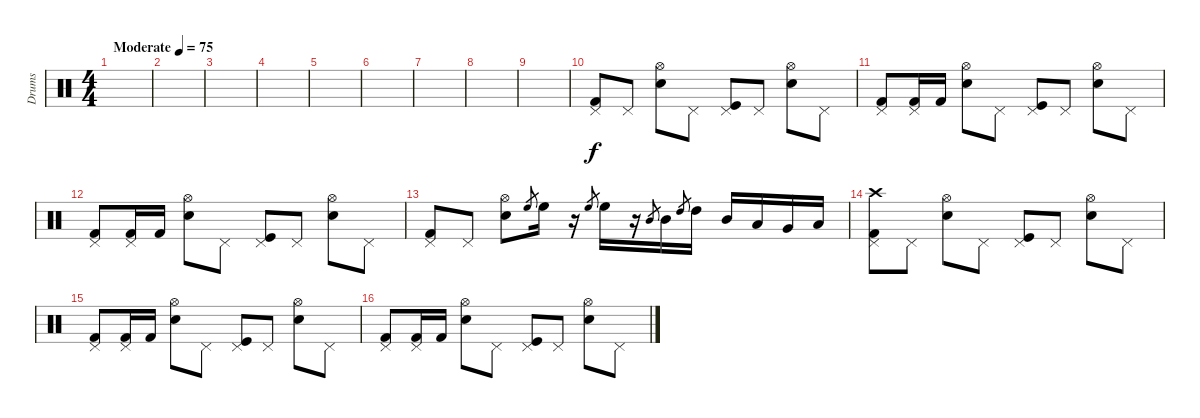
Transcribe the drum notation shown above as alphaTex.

\track ("Drums" "Drums") {instrument percussion}
\staff {score}
\articulation defaults
\ts (4 4)
\tempo (75 "Moderate")
\clef neutral
\ks c
|
|
|
|
|
|
|
|
|
("Pedal Hi-Hat (hit)" "Kick (hit) 2").8 "Pedal Hi-Hat (hit)".8 ("Hi-Hat (open)" "Snare (hit) 2").8 "Pedal Hi-Hat (hit)".8 ("Pedal Hi-Hat (hit)" "Kick (hit)").8 "Pedal Hi-Hat (hit)".8 ("Hi-Hat (open)" "Snare (hit) 2").8 "Pedal Hi-Hat (hit)".8 |
("Pedal Hi-Hat (hit)" "Kick (hit) 2").8 ("Pedal Hi-Hat (hit)" "Kick (hit) 2").16 "Kick (hit) 2".16 ("Hi-Hat (open)" "Snare (hit) 2").8 "Pedal Hi-Hat (hit)".8 ("Pedal Hi-Hat (hit)" "Kick (hit)").8 "Pedal Hi-Hat (hit)".8 ("Hi-Hat (open)" "Snare (hit) 2").8 "Pedal Hi-Hat (hit)".8 |
("Pedal Hi-Hat (hit)" "Kick (hit) 2").8 ("Pedal Hi-Hat (hit)" "Kick (hit) 2").16 "Kick (hit) 2".16 ("Hi-Hat (open)" "Snare (hit) 2").8 "Pedal Hi-Hat (hit)".8 ("Pedal Hi-Hat (hit)" "Kick (hit)").8 "Pedal Hi-Hat (hit)".8 ("Hi-Hat (open)" "Snare (hit) 2").8 "Pedal Hi-Hat (hit)".8 |
("Pedal Hi-Hat (hit)" "Kick (hit) 2").8 "Pedal Hi-Hat (hit)".8 ("Hi-Hat (open)" "Snare (hit) 2").8 "High Floor Tom (hit)".8{gr} "High Floor Tom (hit)".16 r.16 "High Floor Tom (hit)".8{gr} "High Floor Tom (hit)".16 r.16 "Mid Tom (hit)".8{gr} "Mid Tom (hit)".16 "High Tom (hit)".8{gr} "High Tom (hit)".16 "Mid Tom (hit)".16 "Low Tom (hit)".16 "Very Low Tom (hit)".16 "Low Floor Tom (hit)".16 |
("Crash high (hit)" "Pedal Hi-Hat (hit)" "Kick (hit) 2").8 "Pedal Hi-Hat (hit)".8 ("Hi-Hat (open)" "Snare (hit) 2").8 "Pedal Hi-Hat (hit)".8 ("Pedal Hi-Hat (hit)" "Kick (hit)").8 "Pedal Hi-Hat (hit)".8 ("Hi-Hat (open)" "Snare (hit) 2").8 "Pedal Hi-Hat (hit)".8 |
("Pedal Hi-Hat (hit)" "Kick (hit) 2").8 ("Pedal Hi-Hat (hit)" "Kick (hit) 2").16 "Kick (hit) 2".16 ("Hi-Hat (open)" "Snare (hit) 2").8 "Pedal Hi-Hat (hit)".8 ("Pedal Hi-Hat (hit)" "Kick (hit)").8 "Pedal Hi-Hat (hit)".8 ("Hi-Hat (open)" "Snare (hit) 2").8 "Pedal Hi-Hat (hit)".8 |
("Pedal Hi-Hat (hit)" "Kick (hit) 2").8 ("Pedal Hi-Hat (hit)" "Kick (hit) 2").16 "Kick (hit) 2".16 ("Hi-Hat (open)" "Snare (hit) 2").8 "Pedal Hi-Hat (hit)".8 ("Pedal Hi-Hat (hit)" "Kick (hit)").8 "Pedal Hi-Hat (hit)".8 ("Hi-Hat (open)" "Snare (hit) 2").8 "Pedal Hi-Hat (hit)".8
